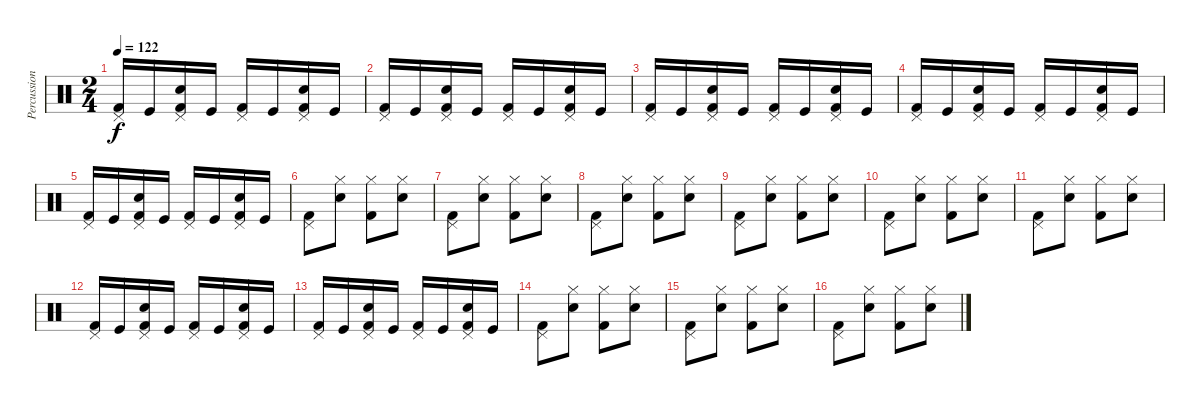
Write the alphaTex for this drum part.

\track ("Percussions" "Percussion") {instrument percussion}
\staff {score}
\articulation defaults
\ts (2 4)
\tempo 122
\clef neutral
\ks c
("Pedal Hi-Hat (hit)" "Kick (hit) 2").16{dy f} "Kick (hit)".16 ("Pedal Hi-Hat (hit)" "Snare (hit) 2" "Kick (hit) 2").16 "Kick (hit)".16 ("Pedal Hi-Hat (hit)" "Kick (hit) 2").16 "Kick (hit)".16 ("Pedal Hi-Hat (hit)" "Snare (hit) 2" "Kick (hit) 2").16 "Kick (hit)".16 |
("Pedal Hi-Hat (hit)" "Kick (hit) 2").16 "Kick (hit)".16 ("Pedal Hi-Hat (hit)" "Snare (hit) 2" "Kick (hit) 2").16 "Kick (hit)".16 ("Pedal Hi-Hat (hit)" "Kick (hit) 2").16 "Kick (hit)".16 ("Pedal Hi-Hat (hit)" "Snare (hit) 2" "Kick (hit) 2").16 "Kick (hit)".16 |
("Pedal Hi-Hat (hit)" "Kick (hit) 2").16 "Kick (hit)".16 ("Pedal Hi-Hat (hit)" "Snare (hit) 2" "Kick (hit) 2").16 "Kick (hit)".16 ("Pedal Hi-Hat (hit)" "Kick (hit) 2").16 "Kick (hit)".16 ("Pedal Hi-Hat (hit)" "Snare (hit) 2" "Kick (hit) 2").16 "Kick (hit)".16 |
("Pedal Hi-Hat (hit)" "Kick (hit) 2").16 "Kick (hit)".16 ("Pedal Hi-Hat (hit)" "Snare (hit) 2" "Kick (hit) 2").16 "Kick (hit)".16 ("Pedal Hi-Hat (hit)" "Kick (hit) 2").16 "Kick (hit)".16 ("Pedal Hi-Hat (hit)" "Snare (hit) 2" "Kick (hit) 2").16 "Kick (hit)".16 |
("Pedal Hi-Hat (hit)" "Kick (hit) 2").16 "Kick (hit)".16 ("Pedal Hi-Hat (hit)" "Snare (hit) 2" "Kick (hit) 2").16 "Kick (hit)".16 ("Pedal Hi-Hat (hit)" "Kick (hit) 2").16 "Kick (hit)".16 ("Pedal Hi-Hat (hit)" "Snare (hit) 2" "Kick (hit) 2").16 "Kick (hit)".16 |
("Pedal Hi-Hat (hit)" "Kick (hit) 2").8 ("Hi-Hat (closed)" "Snare (hit) 2").8 ("Hi-Hat (closed)" "Kick (hit) 2").8 ("Hi-Hat (closed)" "Snare (hit) 2").8 |
("Pedal Hi-Hat (hit)" "Kick (hit) 2").8 ("Hi-Hat (closed)" "Snare (hit) 2").8 ("Hi-Hat (closed)" "Kick (hit) 2").8 ("Hi-Hat (closed)" "Snare (hit) 2").8 |
("Pedal Hi-Hat (hit)" "Kick (hit) 2").8 ("Hi-Hat (closed)" "Snare (hit) 2").8 ("Hi-Hat (closed)" "Kick (hit) 2").8 ("Hi-Hat (closed)" "Snare (hit) 2").8 |
("Pedal Hi-Hat (hit)" "Kick (hit) 2").8 ("Hi-Hat (closed)" "Snare (hit) 2").8 ("Hi-Hat (closed)" "Kick (hit) 2").8 ("Hi-Hat (closed)" "Snare (hit) 2").8 |
("Pedal Hi-Hat (hit)" "Kick (hit) 2").8 ("Hi-Hat (closed)" "Snare (hit) 2").8 ("Hi-Hat (closed)" "Kick (hit) 2").8 ("Hi-Hat (closed)" "Snare (hit) 2").8 |
("Pedal Hi-Hat (hit)" "Kick (hit) 2").8 ("Hi-Hat (closed)" "Snare (hit) 2").8 ("Hi-Hat (closed)" "Kick (hit) 2").8 ("Hi-Hat (closed)" "Snare (hit) 2").8 |
("Pedal Hi-Hat (hit)" "Kick (hit) 2").16 "Kick (hit)".16 ("Pedal Hi-Hat (hit)" "Snare (hit) 2" "Kick (hit) 2").16 "Kick (hit)".16 ("Pedal Hi-Hat (hit)" "Kick (hit) 2").16 "Kick (hit)".16 ("Pedal Hi-Hat (hit)" "Snare (hit) 2" "Kick (hit) 2").16 "Kick (hit)".16 |
("Pedal Hi-Hat (hit)" "Kick (hit) 2").16 "Kick (hit)".16 ("Pedal Hi-Hat (hit)" "Snare (hit) 2" "Kick (hit) 2").16 "Kick (hit)".16 ("Pedal Hi-Hat (hit)" "Kick (hit) 2").16 "Kick (hit)".16 ("Pedal Hi-Hat (hit)" "Snare (hit) 2" "Kick (hit) 2").16 "Kick (hit)".16 |
("Pedal Hi-Hat (hit)" "Kick (hit) 2").8 ("Hi-Hat (closed)" "Snare (hit) 2").8 ("Hi-Hat (closed)" "Kick (hit) 2").8 ("Hi-Hat (closed)" "Snare (hit) 2").8 |
("Pedal Hi-Hat (hit)" "Kick (hit) 2").8 ("Hi-Hat (closed)" "Snare (hit) 2").8 ("Hi-Hat (closed)" "Kick (hit) 2").8 ("Hi-Hat (closed)" "Snare (hit) 2").8 |
("Pedal Hi-Hat (hit)" "Kick (hit) 2").8 ("Hi-Hat (closed)" "Snare (hit) 2").8 ("Hi-Hat (closed)" "Kick (hit) 2").8 ("Hi-Hat (closed)" "Snare (hit) 2").8
